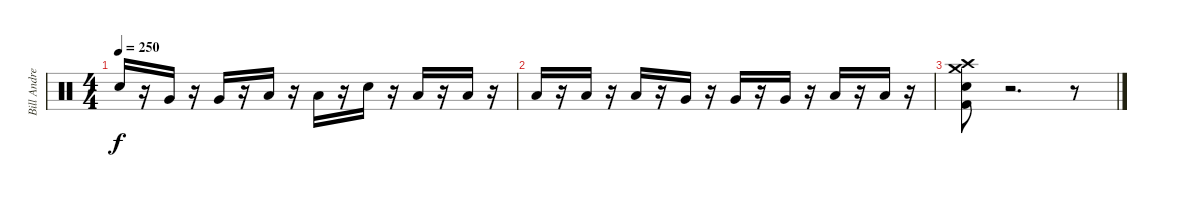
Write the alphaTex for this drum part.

\track ("Bill Andrews" "Bill Andre") {instrument percussion}
\staff {score}
\articulation defaults
\ts (4 4)
\tempo 250
\clef neutral
\ks c "Snare (hit) 2".16{dy f}
r.16 "Very Low Tom (hit)".16 r.16 "Very Low Tom (hit)".16 r.16 "Low Floor Tom (hit)".16 r.16 "Low Floor Tom (hit)".16 r.16 "Snare (hit) 2".16 r.16 "Low Floor Tom (hit)".16 r.16 "Low Floor Tom (hit)".16 r.16 |
"Low Tom (hit)".16 r.16 "Low Tom (hit)".16 r.16 "Low Tom (hit)".16 r.16 "Very Low Tom (hit)".16 r.16 "Very Low Tom (hit)".16 r.16 "Very Low Tom (hit)".16 r.16 "Low Floor Tom (hit)".16 r.16 "Low Floor Tom (hit)".16 r.16 |
("Kick (hit) 2" "Snare (hit) 2" "Crash medium (hit)" "Crash high (hit)").8 r.2{d} r.8
